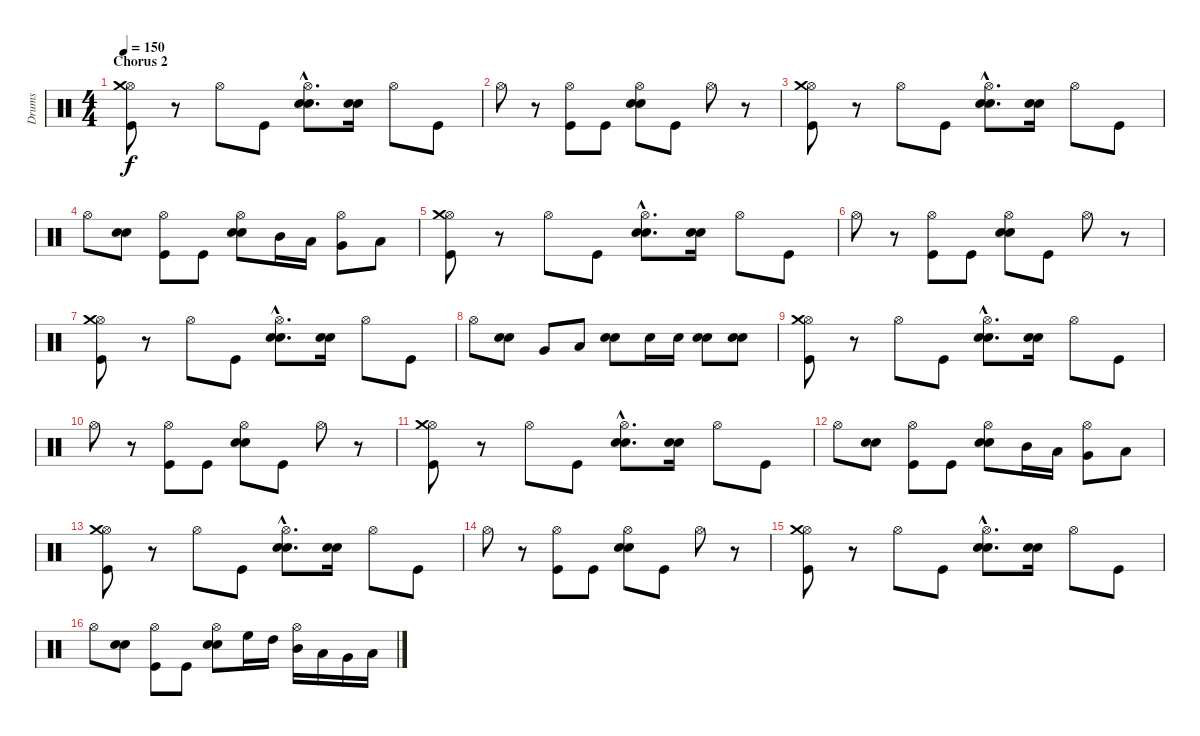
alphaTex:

\track ("Drums" "Drums") {instrument percussion}
\staff {score}
\articulation defaults
\ts (4 4)
\section ("" "Chorus 2")
\tempo 150
\clef neutral
\ks c
("Kick (hit)" "Hi-Hat (open)" "Crash medium (hit)").8{dy f} r.8 "Hi-Hat (open)".8 "Kick (hit)".8 ("Electric Snare (hit)"{hac} "Electric Snare (hit)"{hac} "Hi-Hat (open)"{hac}).8{d} ("Electric Snare (hit)" "Electric Snare (hit)").16 "Hi-Hat (open)".8 "Kick (hit)".8 |
"Hi-Hat (open)".8 r.8 ("Kick (hit)" "Hi-Hat (open)").8 "Kick (hit)".8 ("Electric Snare (hit)" "Electric Snare (hit)" "Hi-Hat (open)").8 "Kick (hit)".8 "Hi-Hat (open)".8 r.8 |
("Kick (hit)" "Hi-Hat (open)" "Crash medium (hit)").8 r.8 "Hi-Hat (open)".8 "Kick (hit)".8 ("Electric Snare (hit)"{hac} "Electric Snare (hit)"{hac} "Hi-Hat (open)"{hac}).8{d} ("Electric Snare (hit)" "Electric Snare (hit)").16 "Hi-Hat (open)".8 "Kick (hit)".8 |
"Hi-Hat (open)".8 ("Electric Snare (hit)" "Electric Snare (hit)").8 ("Kick (hit)" "Hi-Hat (open)").8 "Kick (hit)".8 ("Electric Snare (hit)" "Electric Snare (hit)" "Hi-Hat (open)").8 "Mid Tom (hit)".16 "Low Tom (hit)".16 ("Very Low Tom (hit)" "Hi-Hat (open)").8 "Low Floor Tom (hit)".8 |
("Kick (hit)" "Hi-Hat (open)" "Crash medium (hit)").8 r.8 "Hi-Hat (open)".8 "Kick (hit)".8 ("Electric Snare (hit)"{hac} "Electric Snare (hit)"{hac} "Hi-Hat (open)"{hac}).8{d} ("Electric Snare (hit)" "Electric Snare (hit)").16 "Hi-Hat (open)".8 "Kick (hit)".8 |
"Hi-Hat (open)".8 r.8 ("Kick (hit)" "Hi-Hat (open)").8 "Kick (hit)".8 ("Electric Snare (hit)" "Electric Snare (hit)" "Hi-Hat (open)").8 "Kick (hit)".8 "Hi-Hat (open)".8 r.8 |
("Kick (hit)" "Hi-Hat (open)" "Crash medium (hit)").8 r.8 "Hi-Hat (open)".8 "Kick (hit)".8 ("Electric Snare (hit)"{hac} "Electric Snare (hit)"{hac} "Hi-Hat (open)"{hac}).8{d} ("Electric Snare (hit)" "Electric Snare (hit)").16 "Hi-Hat (open)".8 "Kick (hit)".8 |
"Hi-Hat (open)".8 ("Electric Snare (hit)" "Electric Snare (hit)").8 "Very Low Tom (hit)".8 "Low Floor Tom (hit)".8 ("Electric Snare (hit)" "Electric Snare (hit)").8 "Electric Snare (hit)".16 "Electric Snare (hit)".16 ("Electric Snare (hit)" "Electric Snare (hit)").8 ("Electric Snare (hit)" "Electric Snare (hit)").8 |
("Kick (hit)" "Hi-Hat (open)" "Crash medium (hit)").8 r.8 "Hi-Hat (open)".8 "Kick (hit)".8 ("Electric Snare (hit)"{hac} "Electric Snare (hit)"{hac} "Hi-Hat (open)"{hac}).8{d} ("Electric Snare (hit)" "Electric Snare (hit)").16 "Hi-Hat (open)".8 "Kick (hit)".8 |
"Hi-Hat (open)".8 r.8 ("Kick (hit)" "Hi-Hat (open)").8 "Kick (hit)".8 ("Electric Snare (hit)" "Electric Snare (hit)" "Hi-Hat (open)").8 "Kick (hit)".8 "Hi-Hat (open)".8 r.8 |
("Kick (hit)" "Hi-Hat (open)" "Crash medium (hit)").8 r.8 "Hi-Hat (open)".8 "Kick (hit)".8 ("Electric Snare (hit)"{hac} "Electric Snare (hit)"{hac} "Hi-Hat (open)"{hac}).8{d} ("Electric Snare (hit)" "Electric Snare (hit)").16 "Hi-Hat (open)".8 "Kick (hit)".8 |
"Hi-Hat (open)".8 ("Electric Snare (hit)" "Electric Snare (hit)").8 ("Kick (hit)" "Hi-Hat (open)").8 "Kick (hit)".8 ("Electric Snare (hit)" "Electric Snare (hit)" "Hi-Hat (open)").8 "Mid Tom (hit)".16 "Low Tom (hit)".16 ("Very Low Tom (hit)" "Hi-Hat (open)").8 "Low Floor Tom (hit)".8 |
("Kick (hit)" "Hi-Hat (open)" "Crash medium (hit)").8 r.8 "Hi-Hat (open)".8 "Kick (hit)".8 ("Electric Snare (hit)"{hac} "Electric Snare (hit)"{hac} "Hi-Hat (open)"{hac}).8{d} ("Electric Snare (hit)" "Electric Snare (hit)").16 "Hi-Hat (open)".8 "Kick (hit)".8 |
"Hi-Hat (open)".8 r.8 ("Kick (hit)" "Hi-Hat (open)").8 "Kick (hit)".8 ("Electric Snare (hit)" "Electric Snare (hit)" "Hi-Hat (open)").8 "Kick (hit)".8 "Hi-Hat (open)".8 r.8 |
("Kick (hit)" "Hi-Hat (open)" "Crash medium (hit)").8 r.8 "Hi-Hat (open)".8 "Kick (hit)".8 ("Electric Snare (hit)"{hac} "Electric Snare (hit)"{hac} "Hi-Hat (open)"{hac}).8{d} ("Electric Snare (hit)" "Electric Snare (hit)").16 "Hi-Hat (open)".8 "Kick (hit)".8 |
"Hi-Hat (open)".8 ("Electric Snare (hit)" "Electric Snare (hit)").8 ("Kick (hit)" "Hi-Hat (open)").8 "Kick (hit)".8 ("Electric Snare (hit)" "Electric Snare (hit)" "Hi-Hat (open)").8 "High Floor Tom (hit)".16 "High Tom (hit)".16 ("Mid Tom (hit)" "Hi-Hat (open)").16 "Low Tom (hit)".16 "Very Low Tom (hit)".16 "Low Floor Tom (hit)".16
